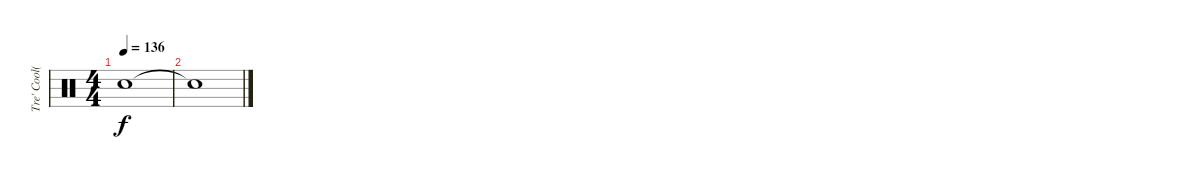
\track ("Tre' Cool(Drums)" "Tre' Cool(") {instrument percussion}
\staff {score}
\articulation defaults
\ts (4 4)
\tempo 136
\clef neutral
\ks c "Snare (hit)"{t}.1{dy f}
|
"Snare (hit)"{t}.1
